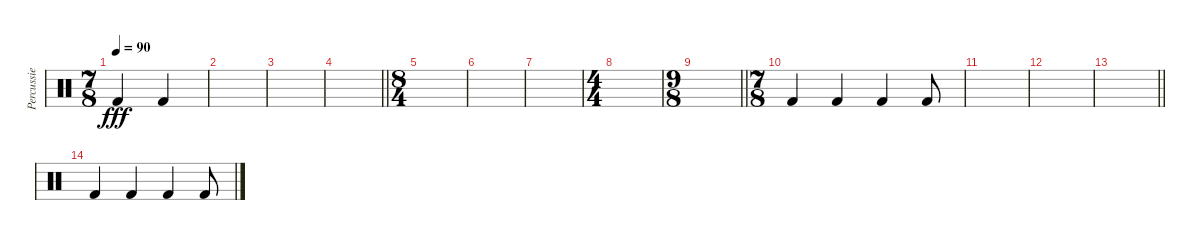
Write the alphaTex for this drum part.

\track ("Percussie" "Percussie") {instrument percussion}
\staff {score}
\articulation defaults
\ts (7 8)
\tempo 90
\clef neutral
\ks c "Kick (hit) 2".4{dy fff} "Kick (hit) 2".4
|
|
|
\barLineRight lightlight
|
\ts (8 4)
|
|
|
\ts (4 4)
|
\ts (9 8)
\barLineRight lightlight
|
\ts (7 8)
"Kick (hit) 2".4 "Kick (hit) 2".4 "Kick (hit) 2".4 "Kick (hit) 2".8 |
|
|
\barLineRight lightlight
|
"Kick (hit) 2".4 "Kick (hit) 2".4 "Kick (hit) 2".4 "Kick (hit) 2".8
